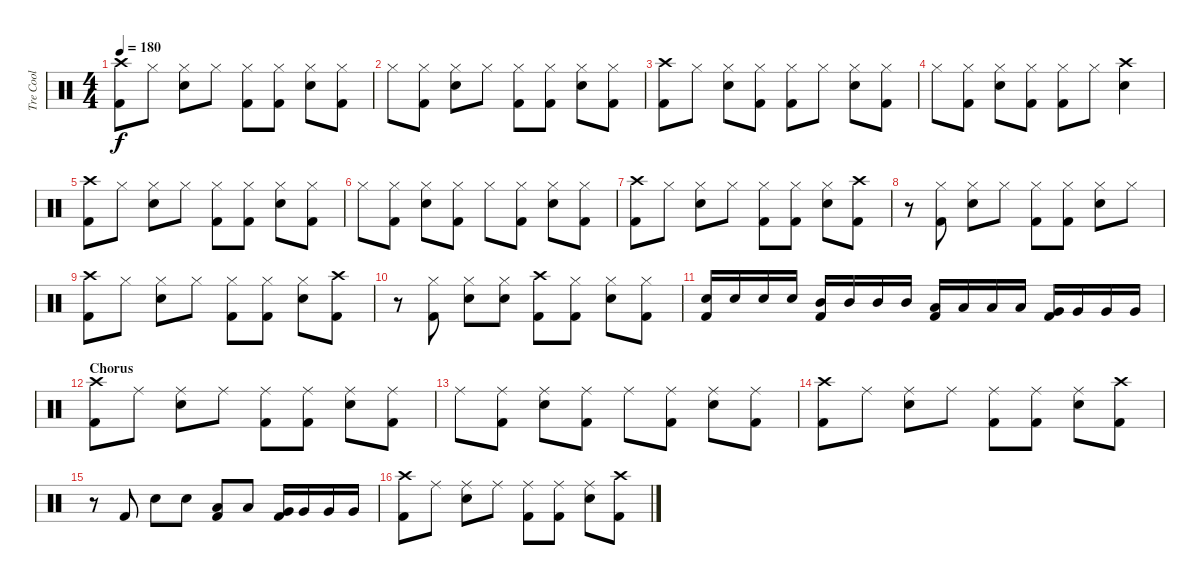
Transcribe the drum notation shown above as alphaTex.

\track ("Tre Cool" "Tre Cool") {instrument percussion}
\staff {score}
\articulation defaults
\ts (4 4)
\tempo 180
\clef neutral
\ks c
("Crash high (hit)" "Kick (hit) 2").8{dy f} "Hi-Hat (closed)".8 ("Hi-Hat (closed)" "Electric Snare (hit)").8 "Hi-Hat (closed)".8 ("Hi-Hat (closed)" "Kick (hit) 2").8 ("Hi-Hat (closed)" "Kick (hit) 2").8 ("Hi-Hat (closed)" "Electric Snare (hit)").8 ("Hi-Hat (closed)" "Kick (hit) 2").8 |
"Hi-Hat (closed)".8 ("Hi-Hat (closed)" "Kick (hit) 2").8 ("Hi-Hat (closed)" "Electric Snare (hit)").8 "Hi-Hat (closed)".8 ("Hi-Hat (closed)" "Kick (hit) 2").8 ("Hi-Hat (closed)" "Kick (hit) 2").8 ("Hi-Hat (closed)" "Electric Snare (hit)").8 ("Hi-Hat (closed)" "Kick (hit) 2").8 |
("Crash high (hit)" "Kick (hit) 2").8 "Hi-Hat (closed)".8 ("Hi-Hat (closed)" "Electric Snare (hit)").8 ("Hi-Hat (closed)" "Kick (hit) 2").8 ("Hi-Hat (closed)" "Kick (hit) 2").8 "Hi-Hat (closed)".8 ("Hi-Hat (closed)" "Electric Snare (hit)").8 ("Hi-Hat (closed)" "Kick (hit) 2").8 |
"Hi-Hat (closed)".8 ("Hi-Hat (closed)" "Kick (hit) 2").8 ("Hi-Hat (closed)" "Electric Snare (hit)").8 ("Hi-Hat (closed)" "Kick (hit) 2").8 ("Hi-Hat (closed)" "Kick (hit) 2").8 "Hi-Hat (closed)".8 ("Crash high (hit)" "Electric Snare (hit)").4 |
("Crash high (hit)" "Kick (hit) 2").8 "Hi-Hat (closed)".8 ("Hi-Hat (closed)" "Electric Snare (hit)").8 "Hi-Hat (closed)".8 ("Hi-Hat (closed)" "Kick (hit) 2").8 ("Hi-Hat (closed)" "Kick (hit) 2").8 ("Hi-Hat (closed)" "Electric Snare (hit)").8 ("Hi-Hat (closed)" "Kick (hit) 2").8 |
"Hi-Hat (closed)".8 ("Hi-Hat (closed)" "Kick (hit) 2").8 ("Hi-Hat (closed)" "Electric Snare (hit)").8 ("Hi-Hat (closed)" "Kick (hit) 2").8 "Hi-Hat (closed)".8 ("Hi-Hat (closed)" "Kick (hit) 2").8 ("Hi-Hat (closed)" "Electric Snare (hit)").8 ("Hi-Hat (closed)" "Kick (hit) 2").8 |
("Crash high (hit)" "Kick (hit) 2").8 "Hi-Hat (closed)".8 ("Hi-Hat (closed)" "Electric Snare (hit)").8 "Hi-Hat (closed)".8 ("Hi-Hat (closed)" "Kick (hit) 2").8 ("Hi-Hat (closed)" "Kick (hit) 2").8 ("Hi-Hat (closed)" "Electric Snare (hit)").8 ("Crash high (hit)" "Kick (hit) 2").8 |
r.8 ("Hi-Hat (closed)" "Kick (hit) 2").8 ("Hi-Hat (closed)" "Electric Snare (hit)").8 "Hi-Hat (closed)".8 ("Hi-Hat (closed)" "Kick (hit) 2").8 ("Hi-Hat (closed)" "Kick (hit) 2").8 ("Hi-Hat (closed)" "Electric Snare (hit)").8 "Hi-Hat (closed)".8 |
("Crash high (hit)" "Kick (hit) 2").8 "Hi-Hat (closed)".8 ("Hi-Hat (closed)" "Electric Snare (hit)").8 "Hi-Hat (closed)".8 ("Hi-Hat (closed)" "Kick (hit) 2").8 ("Hi-Hat (closed)" "Kick (hit) 2").8 ("Hi-Hat (closed)" "Electric Snare (hit)").8 ("Crash high (hit)" "Kick (hit) 2").8 |
r.8 ("Hi-Hat (closed)" "Kick (hit) 2").8 ("Hi-Hat (closed)" "Electric Snare (hit)").8 ("Hi-Hat (closed)" "Electric Snare (hit)").8 ("Crash high (hit)" "Kick (hit) 2").8 ("Hi-Hat (closed)" "Kick (hit) 2").8 ("Hi-Hat (closed)" "Electric Snare (hit)").8 ("Hi-Hat (closed)" "Kick (hit) 2").8 |
("Electric Snare (hit)" "Kick (hit) 2").16 "Electric Snare (hit)".16 "Electric Snare (hit)".16 "Electric Snare (hit)".16 ("Mid Tom (hit)" "Kick (hit) 2").16 "Mid Tom (hit)".16 "Mid Tom (hit)".16 "Mid Tom (hit)".16 ("Low Tom (hit)" "Kick (hit) 2").16 "Low Tom (hit)".16 "Low Tom (hit)".16 "Low Tom (hit)".16 ("Very Low Tom (hit)" "Kick (hit) 2").16 "Very Low Tom (hit)".16 "Very Low Tom (hit)".16 "Very Low Tom (hit)".16 |
\section ("" "Chorus")
("Crash high (hit)" "Kick (hit) 2").8 "Ride (middle)".8 ("Ride (middle)" "Electric Snare (hit)").8 "Ride (middle)".8 ("Ride (middle)" "Kick (hit) 2").8 ("Ride (middle)" "Kick (hit) 2").8 ("Ride (middle)" "Electric Snare (hit)").8 ("Ride (middle)" "Kick (hit) 2").8 |
"Ride (middle)".8 ("Ride (middle)" "Kick (hit) 2").8 ("Ride (middle)" "Electric Snare (hit)").8 ("Ride (middle)" "Kick (hit) 2").8 "Ride (middle)".8 ("Ride (middle)" "Kick (hit) 2").8 ("Ride (middle)" "Electric Snare (hit)").8 ("Ride (middle)" "Kick (hit) 2").8 |
("Crash high (hit)" "Kick (hit) 2").8 "Ride (middle)".8 ("Ride (middle)" "Electric Snare (hit)").8 "Ride (middle)".8 ("Ride (middle)" "Kick (hit) 2").8 ("Ride (middle)" "Kick (hit) 2").8 ("Ride (middle)" "Electric Snare (hit)").8 ("Crash high (hit)" "Kick (hit) 2").8 |
r.8 "Kick (hit) 2".8 "Electric Snare (hit)".8 "Electric Snare (hit)".8 ("Low Tom (hit)" "Kick (hit) 2").8 "Low Tom (hit)".8 ("Very Low Tom (hit)" "Kick (hit) 2").16 "Very Low Tom (hit)".16 "Very Low Tom (hit)".16 "Very Low Tom (hit)".16 |
("Crash high (hit)" "Kick (hit) 2").8 "Ride (middle)".8 ("Ride (middle)" "Electric Snare (hit)").8 "Ride (middle)".8 ("Ride (middle)" "Kick (hit) 2").8 ("Ride (middle)" "Kick (hit) 2").8 ("Ride (middle)" "Electric Snare (hit)").8 ("Crash high (hit)" "Kick (hit) 2").8
